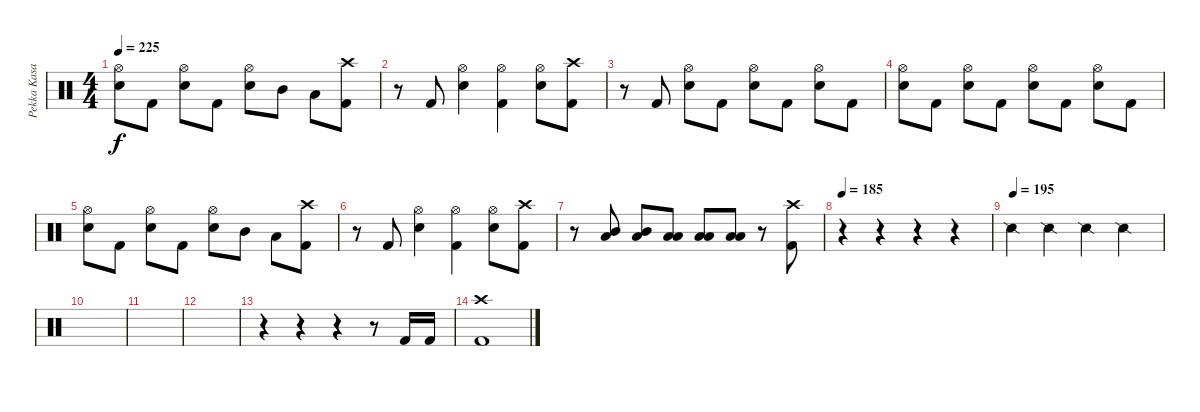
\track ("Pekka Kasari" "Pekka Kasa") {instrument percussion}
\staff {score}
\articulation defaults
\ts (4 4)
\tempo 225
\clef neutral
\ks c
("Hi-Hat (open)" "Snare (hit) 2").8{dy f} "Kick (hit) 2".8 ("Hi-Hat (open)" "Snare (hit) 2").8 "Kick (hit) 2".8 ("Hi-Hat (open)" "Snare (hit) 2").8 "Mid Tom (hit)".8 "Low Tom (hit)".8 ("Crash high (hit)" "Kick (hit) 2").8 |
r.8 "Kick (hit) 2".8 ("Hi-Hat (open)" "Snare (hit) 2").4 ("Hi-Hat (open)" "Kick (hit) 2").4 ("Hi-Hat (open)" "Snare (hit) 2").8 ("Kick (hit) 2" "Crash high (hit)").8 |
r.8 "Kick (hit) 2".8 ("Hi-Hat (open)" "Snare (hit) 2").8 "Kick (hit) 2".8 ("Hi-Hat (open)" "Snare (hit) 2").8 "Kick (hit) 2".8 ("Hi-Hat (open)" "Snare (hit) 2").8 "Kick (hit) 2".8 |
("Hi-Hat (open)" "Snare (hit) 2").8 "Kick (hit) 2".8 ("Hi-Hat (open)" "Snare (hit) 2").8 "Kick (hit) 2".8 ("Hi-Hat (open)" "Snare (hit) 2").8 "Kick (hit) 2".8 ("Hi-Hat (open)" "Snare (hit) 2").8 "Kick (hit) 2".8 |
("Hi-Hat (open)" "Snare (hit) 2").8 "Kick (hit) 2".8 ("Hi-Hat (open)" "Snare (hit) 2").8 "Kick (hit) 2".8 ("Hi-Hat (open)" "Snare (hit) 2").8 "Mid Tom (hit)".8 "Low Tom (hit)".8 ("Kick (hit) 2" "Crash high (hit)").8 |
r.8 "Kick (hit) 2".8 ("Hi-Hat (open)" "Snare (hit) 2").4 ("Hi-Hat (open)" "Kick (hit) 2").4 ("Hi-Hat (open)" "Snare (hit) 2").8 ("Kick (hit) 2" "Crash high (hit)").8 |
r.8 ("Mid Tom (hit)" "Low Tom (hit)").8 ("Mid Tom (hit)" "Low Tom (hit)").8 ("Low Tom (hit)" "Low Floor Tom (hit)").8 ("Low Tom (hit)" "Low Floor Tom (hit)").8 ("Low Floor Tom (hit)" "Low Tom (hit)").8 r.8 ("Crash high (hit)" "Kick (hit) 2").8 |
\tempo 185
r.4 r.4 r.4 r.4 |
\tempo (195)
"Snare (side stick) 2".4 "Snare (side stick) 2".4 "Snare (side stick) 2".4 "Snare (side stick) 2".4 |
|
|
|
r.4 r.4 r.4 r.8 "Kick (hit) 2".16 "Kick (hit) 2".16 |
("Crash high (hit)" "Kick (hit) 2").1
